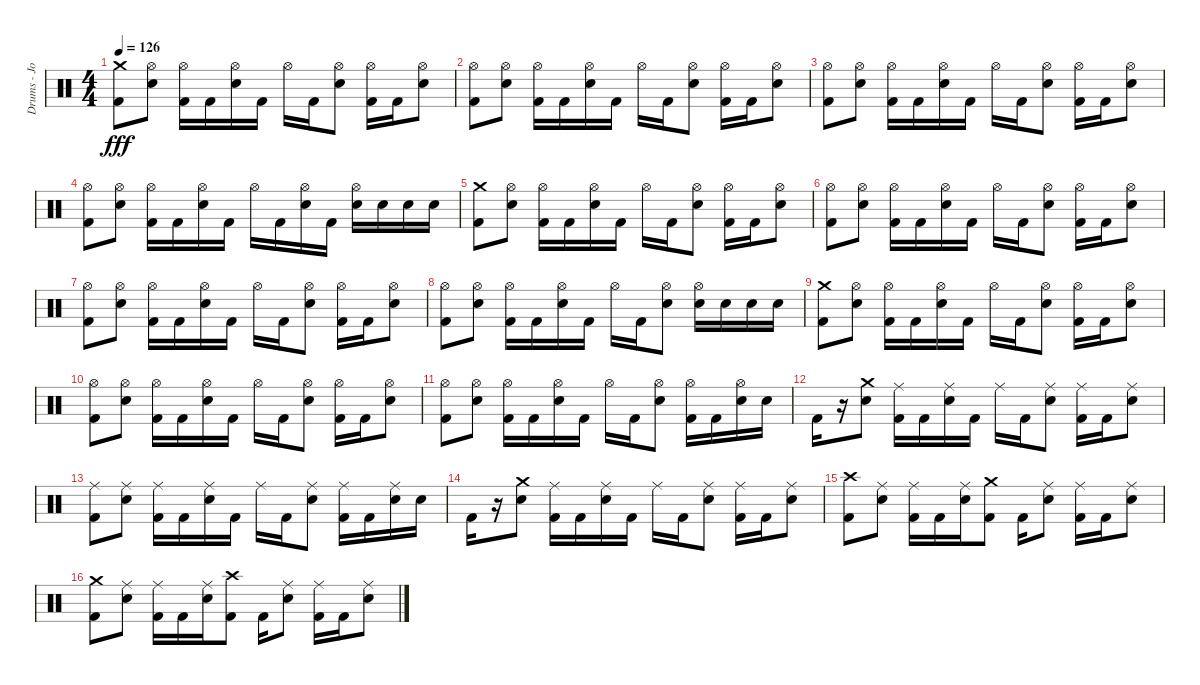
\track ("Drums - Jordan" "Drums - Jo") {instrument percussion}
\staff {score}
\articulation defaults
\ts (4 4)
\tempo 126
\clef neutral
\ks c
("Kick (hit) 2" "Crash medium (hit)").8{dy fff} ("Electric Snare (hit)" "Hi-Hat (open)").8 ("Kick (hit) 2" "Hi-Hat (open)").16 "Kick (hit) 2".16 ("Electric Snare (hit)" "Hi-Hat (open)").16 "Kick (hit) 2".16 "Hi-Hat (open)".16 "Kick (hit) 2".16 ("Electric Snare (hit)" "Hi-Hat (open)").8 ("Kick (hit) 2" "Hi-Hat (open)").16 "Kick (hit) 2".16 ("Electric Snare (hit)" "Hi-Hat (open)").8 |
("Kick (hit) 2" "Hi-Hat (open)").8 ("Electric Snare (hit)" "Hi-Hat (open)").8 ("Kick (hit) 2" "Hi-Hat (open)").16 "Kick (hit) 2".16 ("Electric Snare (hit)" "Hi-Hat (open)").16 "Kick (hit) 2".16 "Hi-Hat (open)".16 "Kick (hit) 2".16 ("Electric Snare (hit)" "Hi-Hat (open)").8 ("Kick (hit) 2" "Hi-Hat (open)").16 "Kick (hit) 2".16 ("Electric Snare (hit)" "Hi-Hat (open)").8 |
("Kick (hit) 2" "Hi-Hat (open)").8 ("Electric Snare (hit)" "Hi-Hat (open)").8 ("Kick (hit) 2" "Hi-Hat (open)").16 "Kick (hit) 2".16 ("Electric Snare (hit)" "Hi-Hat (open)").16 "Kick (hit) 2".16 "Hi-Hat (open)".16 "Kick (hit) 2".16 ("Electric Snare (hit)" "Hi-Hat (open)").8 ("Kick (hit) 2" "Hi-Hat (open)").16 "Kick (hit) 2".16 ("Electric Snare (hit)" "Hi-Hat (open)").8 |
("Kick (hit) 2" "Hi-Hat (open)").8 ("Electric Snare (hit)" "Hi-Hat (open)").8 ("Kick (hit) 2" "Hi-Hat (open)").16 "Kick (hit) 2".16 ("Electric Snare (hit)" "Hi-Hat (open)").16 "Kick (hit) 2".16 "Hi-Hat (open)".16 "Kick (hit) 2".16 ("Electric Snare (hit)" "Hi-Hat (open)").16 "Kick (hit) 2".16 ("Electric Snare (hit)" "Hi-Hat (open)").16 "Electric Snare (hit)".16 "Electric Snare (hit)".16 "Electric Snare (hit)".16 |
("Kick (hit) 2" "Crash medium (hit)").8 ("Electric Snare (hit)" "Hi-Hat (open)").8 ("Kick (hit) 2" "Hi-Hat (open)").16 "Kick (hit) 2".16 ("Electric Snare (hit)" "Hi-Hat (open)").16 "Kick (hit) 2".16 "Hi-Hat (open)".16 "Kick (hit) 2".16 ("Electric Snare (hit)" "Hi-Hat (open)").8 ("Kick (hit) 2" "Hi-Hat (open)").16 "Kick (hit) 2".16 ("Electric Snare (hit)" "Hi-Hat (open)").8 |
("Kick (hit) 2" "Hi-Hat (open)").8 ("Electric Snare (hit)" "Hi-Hat (open)").8 ("Kick (hit) 2" "Hi-Hat (open)").16 "Kick (hit) 2".16 ("Electric Snare (hit)" "Hi-Hat (open)").16 "Kick (hit) 2".16 "Hi-Hat (open)".16 "Kick (hit) 2".16 ("Electric Snare (hit)" "Hi-Hat (open)").8 ("Kick (hit) 2" "Hi-Hat (open)").16 "Kick (hit) 2".16 ("Electric Snare (hit)" "Hi-Hat (open)").8 |
("Kick (hit) 2" "Hi-Hat (open)").8 ("Electric Snare (hit)" "Hi-Hat (open)").8 ("Kick (hit) 2" "Hi-Hat (open)").16 "Kick (hit) 2".16 ("Electric Snare (hit)" "Hi-Hat (open)").16 "Kick (hit) 2".16 "Hi-Hat (open)".16 "Kick (hit) 2".16 ("Electric Snare (hit)" "Hi-Hat (open)").8 ("Kick (hit) 2" "Hi-Hat (open)").16 "Kick (hit) 2".16 ("Electric Snare (hit)" "Hi-Hat (open)").8 |
("Kick (hit) 2" "Hi-Hat (open)").8 ("Electric Snare (hit)" "Hi-Hat (open)").8 ("Kick (hit) 2" "Hi-Hat (open)").16 "Kick (hit) 2".16 ("Electric Snare (hit)" "Hi-Hat (open)").16 "Kick (hit) 2".16 "Hi-Hat (open)".16 "Kick (hit) 2".16 ("Electric Snare (hit)" "Hi-Hat (open)").8 ("Electric Snare (hit)" "Hi-Hat (open)").16 "Electric Snare (hit)".16 "Electric Snare (hit)".16 "Electric Snare (hit)".16 |
("Kick (hit) 2" "Crash medium (hit)").8 ("Electric Snare (hit)" "Hi-Hat (open)").8 ("Kick (hit) 2" "Hi-Hat (open)").16 "Kick (hit) 2".16 ("Electric Snare (hit)" "Hi-Hat (open)").16 "Kick (hit) 2".16 "Hi-Hat (open)".16 "Kick (hit) 2".16 ("Electric Snare (hit)" "Hi-Hat (open)").8 ("Kick (hit) 2" "Hi-Hat (open)").16 "Kick (hit) 2".16 ("Electric Snare (hit)" "Hi-Hat (open)").8 |
("Kick (hit) 2" "Hi-Hat (open)").8 ("Electric Snare (hit)" "Hi-Hat (open)").8 ("Kick (hit) 2" "Hi-Hat (open)").16 "Kick (hit) 2".16 ("Electric Snare (hit)" "Hi-Hat (open)").16 "Kick (hit) 2".16 "Hi-Hat (open)".16 "Kick (hit) 2".16 ("Electric Snare (hit)" "Hi-Hat (open)").8 ("Kick (hit) 2" "Hi-Hat (open)").16 "Kick (hit) 2".16 ("Electric Snare (hit)" "Hi-Hat (open)").8 |
("Kick (hit) 2" "Hi-Hat (open)").8 ("Electric Snare (hit)" "Hi-Hat (open)").8 ("Kick (hit) 2" "Hi-Hat (open)").16 "Kick (hit) 2".16 ("Electric Snare (hit)" "Hi-Hat (open)").16 "Kick (hit) 2".16 "Hi-Hat (open)".16 "Kick (hit) 2".16 ("Electric Snare (hit)" "Hi-Hat (open)").8 ("Kick (hit) 2" "Hi-Hat (open)").16 "Kick (hit) 2".16 ("Electric Snare (hit)" "Hi-Hat (open)").16 "Electric Snare (hit)".16 |
"Kick (hit) 2".16 r.16 ("Electric Snare (hit)" "Crash medium (hit)").8 ("Kick (hit) 2" "Ride (middle)").16 "Kick (hit) 2".16 ("Electric Snare (hit)" "Ride (middle)").16 "Kick (hit) 2".16 "Ride (middle)".16 "Kick (hit) 2".16 ("Electric Snare (hit)" "Ride (middle)").8 ("Kick (hit) 2" "Ride (middle)").16 "Kick (hit) 2".16 ("Electric Snare (hit)" "Ride (middle)").8 |
("Kick (hit) 2" "Ride (middle)").8 ("Electric Snare (hit)" "Ride (middle)").8 ("Kick (hit) 2" "Ride (middle)").16 "Kick (hit) 2".16 ("Electric Snare (hit)" "Ride (middle)").16 "Kick (hit) 2".16 "Ride (middle)".16 "Kick (hit) 2".16 ("Electric Snare (hit)" "Ride (middle)").8 ("Kick (hit) 2" "Ride (middle)").16 "Kick (hit) 2".16 ("Electric Snare (hit)" "Ride (middle)").16 "Electric Snare (hit)".16 |
"Kick (hit) 2".16 r.16 ("Electric Snare (hit)" "Crash medium (hit)").8 ("Kick (hit) 2" "Ride (middle)").16 "Kick (hit) 2".16 ("Electric Snare (hit)" "Ride (middle)").16 "Kick (hit) 2".16 "Ride (middle)".16 "Kick (hit) 2".16 ("Electric Snare (hit)" "Ride (middle)").8 ("Kick (hit) 2" "Ride (middle)").16 "Kick (hit) 2".16 ("Electric Snare (hit)" "Ride (middle)").8 |
("Kick (hit) 2" "Crash high (hit)").8 ("Electric Snare (hit)" "Ride (middle)").8 ("Kick (hit) 2" "Ride (middle)").16 "Kick (hit) 2".16 ("Electric Snare (hit)" "Ride (middle)").16 ("Kick (hit) 2" "Crash medium (hit)").8 "Kick (hit) 2".16 ("Electric Snare (hit)" "Ride (middle)").8 ("Kick (hit) 2" "Ride (middle)").16 "Kick (hit) 2".16 ("Electric Snare (hit)" "Ride (middle)").8 |
("Kick (hit) 2" "Crash medium (hit)").8 ("Electric Snare (hit)" "Ride (middle)").8 ("Kick (hit) 2" "Ride (middle)").16 "Kick (hit) 2".16 ("Electric Snare (hit)" "Ride (middle)").16 ("Kick (hit) 2" "Crash high (hit)").8 "Kick (hit) 2".16 ("Electric Snare (hit)" "Ride (middle)").8 ("Kick (hit) 2" "Ride (middle)").16 "Kick (hit) 2".16 ("Electric Snare (hit)" "Ride (middle)").8
